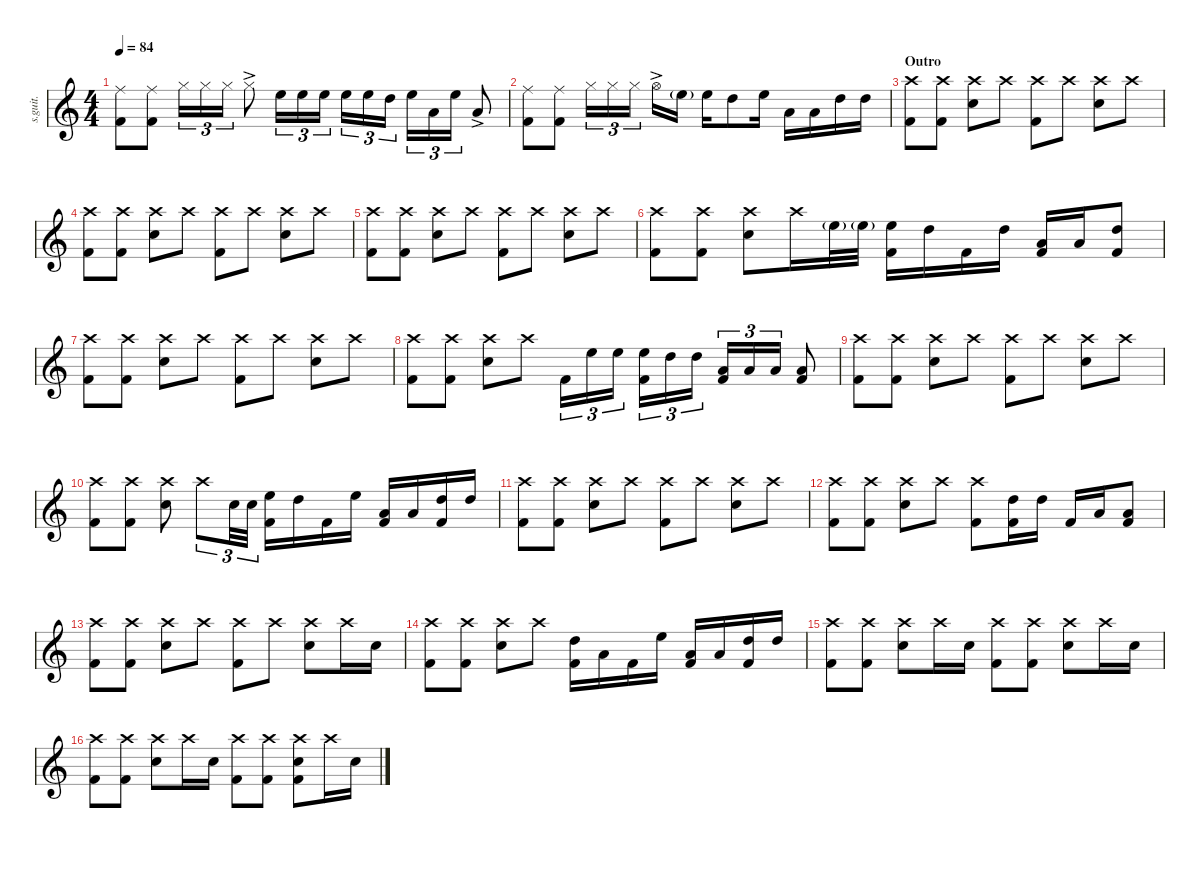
\defaultSystemsLayout 4
\hideDynamics
\bracketExtendMode nobrackets
\track ("Ringo Starr - Drums" "s.guit.") {instrument percussion}
\staff {score}
\articulation defaults
\ts (4 4)
\tempo 84
\clef g2
\ks c
("Ride (middle)" "Kick (hit) 2").8{lyrics (0 "") lyrics (1 "") lyrics (2 "") lyrics (3 "") lyrics (4 "") dy f} ("Ride (middle)" "Kick (hit) 2").8{lyrics (0 "") lyrics (1 "") lyrics (2 "") lyrics (3 "") lyrics (4 "")} "Hi-Hat (closed)".16{tu (3 2) lyrics (0 "") lyrics (1 "") lyrics (2 "") lyrics (3 "") lyrics (4 "")} "Hi-Hat (closed)".16{tu (3 2) lyrics (0 "") lyrics (1 "") lyrics (2 "") lyrics (3 "") lyrics (4 "")} "Hi-Hat (closed)".16{tu (3 2) lyrics (0 "") lyrics (1 "") lyrics (2 "") lyrics (3 "") lyrics (4 "")} "Hi-Hat (closed)"{ac}.8{lyrics (0 "") lyrics (1 "") lyrics (2 "") lyrics (3 "") lyrics (4 "")} "High Floor Tom (hit)".16{tu (3 2) lyrics (0 "") lyrics (1 "") lyrics (2 "") lyrics (3 "") lyrics (4 "")} "High Floor Tom (hit)".16{tu (3 2) lyrics (0 "") lyrics (1 "") lyrics (2 "") lyrics (3 "") lyrics (4 "")} "High Floor Tom (hit)".16{tu (3 2) lyrics (0 "") lyrics (1 "") lyrics (2 "") lyrics (3 "") lyrics (4 "")} "High Floor Tom (hit)".16{tu (3 2) lyrics (0 "") lyrics (1 "") lyrics (2 "") lyrics (3 "") lyrics (4 "")} "High Floor Tom (hit)".16{tu (3 2) lyrics (0 "") lyrics (1 "") lyrics (2 "") lyrics (3 "") lyrics (4 "")} "High Tom (hit)".16{tu (3 2) lyrics (0 "") lyrics (1 "") lyrics (2 "") lyrics (3 "") lyrics (4 "")} "High Floor Tom (hit)".16{tu (3 2) lyrics (0 "") lyrics (1 "") lyrics (2 "") lyrics (3 "") lyrics (4 "")} "Low Tom (hit)".16{tu (3 2) lyrics (0 "") lyrics (1 "") lyrics (2 "") lyrics (3 "") lyrics (4 "")} "High Floor Tom (hit)".16{tu (3 2) lyrics (0 "") lyrics (1 "") lyrics (2 "") lyrics (3 "") lyrics (4 "")} "Low Tom (hit)"{ac}.8{lyrics (0 "") lyrics (1 "") lyrics (2 "") lyrics (3 "") lyrics (4 "")} |
("Ride (middle)" "Kick (hit) 2").8{lyrics (0 "") lyrics (1 "") lyrics (2 "") lyrics (3 "") lyrics (4 "")} ("Ride (middle)" "Kick (hit) 2").8{lyrics (0 "") lyrics (1 "") lyrics (2 "") lyrics (3 "") lyrics (4 "")} "Hi-Hat (closed)".16{tu (3 2) lyrics (0 "") lyrics (1 "") lyrics (2 "") lyrics (3 "") lyrics (4 "")} "Hi-Hat (closed)".16{tu (3 2) lyrics (0 "") lyrics (1 "") lyrics (2 "") lyrics (3 "") lyrics (4 "")} "Hi-Hat (closed)".16{tu (3 2) lyrics (0 "") lyrics (1 "") lyrics (2 "") lyrics (3 "") lyrics (4 "")} "Hi-Hat (open)"{ac}.16{lyrics (0 "") lyrics (1 "") lyrics (2 "") lyrics (3 "") lyrics (4 "")} "High Floor Tom (hit)"{g}.16{lyrics (0 "") lyrics (1 "") lyrics (2 "") lyrics (3 "") lyrics (4 "") dy p} "High Floor Tom (hit)".16{lyrics (0 "") lyrics (1 "") lyrics (2 "") lyrics (3 "") lyrics (4 "") dy mp} "High Tom (hit)".8{lyrics (0 "") lyrics (1 "") lyrics (2 "") lyrics (3 "") lyrics (4 "") dy f} "High Floor Tom (hit)".16{lyrics (0 "") lyrics (1 "") lyrics (2 "") lyrics (3 "") lyrics (4 "") dy mp} "Low Tom (hit)".16{lyrics (0 "") lyrics (1 "") lyrics (2 "") lyrics (3 "") lyrics (4 "") dy f} "Low Tom (hit)".16{lyrics (0 "") lyrics (1 "") lyrics (2 "") lyrics (3 "") lyrics (4 "")} "High Tom (hit)".16{lyrics (0 "") lyrics (1 "") lyrics (2 "") lyrics (3 "") lyrics (4 "")} "High Tom (hit)".16{lyrics (0 "") lyrics (1 "") lyrics (2 "") lyrics (3 "") lyrics (4 "")} |
\section ("" "Outro")
("Crash high (hit)" "Kick (hit) 2").8{lyrics (0 "") lyrics (1 "") lyrics (2 "") lyrics (3 "") lyrics (4 "")} ("Kick (hit) 2" "Crash high (hit)").8{lyrics (0 "") lyrics (1 "") lyrics (2 "") lyrics (3 "") lyrics (4 "")} ("Crash high (hit)" "Snare (hit) 2").8{lyrics (0 "") lyrics (1 "") lyrics (2 "") lyrics (3 "") lyrics (4 "")} "Crash high (hit)".8{lyrics (0 "") lyrics (1 "") lyrics (2 "") lyrics (3 "") lyrics (4 "") dy mf} ("Crash high (hit)" "Kick (hit) 2").8{lyrics (0 "") lyrics (1 "") lyrics (2 "") lyrics (3 "") lyrics (4 "") dy f} "Crash high (hit)".8{lyrics (0 "") lyrics (1 "") lyrics (2 "") lyrics (3 "") lyrics (4 "") dy mf} ("Crash high (hit)" "Snare (hit) 2").8{lyrics (0 "") lyrics (1 "") lyrics (2 "") lyrics (3 "") lyrics (4 "") dy f} "Crash high (hit)".8{lyrics (0 "") lyrics (1 "") lyrics (2 "") lyrics (3 "") lyrics (4 "") dy mf} |
("Crash high (hit)" "Kick (hit) 2").8{lyrics (0 "") lyrics (1 "") lyrics (2 "") lyrics (3 "") lyrics (4 "") dy f} ("Kick (hit) 2" "Crash high (hit)").8{lyrics (0 "") lyrics (1 "") lyrics (2 "") lyrics (3 "") lyrics (4 "")} ("Crash high (hit)" "Snare (hit) 2").8{lyrics (0 "") lyrics (1 "") lyrics (2 "") lyrics (3 "") lyrics (4 "")} "Crash high (hit)".8{lyrics (0 "") lyrics (1 "") lyrics (2 "") lyrics (3 "") lyrics (4 "") dy mf} ("Crash high (hit)" "Kick (hit) 2").8{lyrics (0 "") lyrics (1 "") lyrics (2 "") lyrics (3 "") lyrics (4 "") dy f} "Crash high (hit)".8{lyrics (0 "") lyrics (1 "") lyrics (2 "") lyrics (3 "") lyrics (4 "") dy mf} ("Crash high (hit)" "Snare (hit) 2").8{lyrics (0 "") lyrics (1 "") lyrics (2 "") lyrics (3 "") lyrics (4 "") dy f} "Crash high (hit)".8{lyrics (0 "") lyrics (1 "") lyrics (2 "") lyrics (3 "") lyrics (4 "") dy mf} |
("Crash high (hit)" "Kick (hit) 2").8{lyrics (0 "") lyrics (1 "") lyrics (2 "") lyrics (3 "") lyrics (4 "") dy f} ("Kick (hit) 2" "Crash high (hit)").8{lyrics (0 "") lyrics (1 "") lyrics (2 "") lyrics (3 "") lyrics (4 "")} ("Crash high (hit)" "Snare (hit) 2").8{lyrics (0 "") lyrics (1 "") lyrics (2 "") lyrics (3 "") lyrics (4 "")} "Crash high (hit)".8{lyrics (0 "") lyrics (1 "") lyrics (2 "") lyrics (3 "") lyrics (4 "") dy mf} ("Crash high (hit)" "Kick (hit) 2").8{lyrics (0 "") lyrics (1 "") lyrics (2 "") lyrics (3 "") lyrics (4 "") dy f} "Crash high (hit)".8{lyrics (0 "") lyrics (1 "") lyrics (2 "") lyrics (3 "") lyrics (4 "") dy mf} ("Crash high (hit)" "Snare (hit) 2").8{lyrics (0 "") lyrics (1 "") lyrics (2 "") lyrics (3 "") lyrics (4 "") dy f} "Crash high (hit)".8{lyrics (0 "") lyrics (1 "") lyrics (2 "") lyrics (3 "") lyrics (4 "") dy mf} |
("Crash high (hit)" "Kick (hit) 2").8{lyrics (0 "") lyrics (1 "") lyrics (2 "") lyrics (3 "") lyrics (4 "") dy f} ("Kick (hit) 2" "Crash high (hit)").8{lyrics (0 "") lyrics (1 "") lyrics (2 "") lyrics (3 "") lyrics (4 "")} ("Crash high (hit)" "Snare (hit) 2").8{lyrics (0 "") lyrics (1 "") lyrics (2 "") lyrics (3 "") lyrics (4 "")} "Crash high (hit)".16{lyrics (0 "") lyrics (1 "") lyrics (2 "") lyrics (3 "") lyrics (4 "") dy mf} "High Floor Tom (hit)"{g}.32{lyrics (0 "") lyrics (1 "") lyrics (2 "") lyrics (3 "") lyrics (4 "") dy p} "High Floor Tom (hit)"{g}.32{lyrics (0 "") lyrics (1 "") lyrics (2 "") lyrics (3 "") lyrics (4 "")} ("Kick (hit) 2" "High Floor Tom (hit)").16{lyrics (0 "") lyrics (1 "") lyrics (2 "") lyrics (3 "") lyrics (4 "") dy f} "High Tom (hit)".16{lyrics (0 "") lyrics (1 "") lyrics (2 "") lyrics (3 "") lyrics (4 "")} "Kick (hit) 2".16{lyrics (0 "") lyrics (1 "") lyrics (2 "") lyrics (3 "") lyrics (4 "")} "High Tom (hit)".16{lyrics (0 "") lyrics (1 "") lyrics (2 "") lyrics (3 "") lyrics (4 "")} ("Kick (hit) 2" "Low Tom (hit)").16{lyrics (0 "") lyrics (1 "") lyrics (2 "") lyrics (3 "") lyrics (4 "")} "Low Tom (hit)".16{lyrics (0 "") lyrics (1 "") lyrics (2 "") lyrics (3 "") lyrics (4 "")} ("Kick (hit) 2" "High Tom (hit)").8{lyrics (0 "") lyrics (1 "") lyrics (2 "") lyrics (3 "") lyrics (4 "")} |
("Crash high (hit)" "Kick (hit) 2").8{lyrics (0 "") lyrics (1 "") lyrics (2 "") lyrics (3 "") lyrics (4 "")} ("Kick (hit) 2" "Crash high (hit)").8{lyrics (0 "") lyrics (1 "") lyrics (2 "") lyrics (3 "") lyrics (4 "")} ("Crash high (hit)" "Snare (hit) 2").8{lyrics (0 "") lyrics (1 "") lyrics (2 "") lyrics (3 "") lyrics (4 "")} "Crash high (hit)".8{lyrics (0 "") lyrics (1 "") lyrics (2 "") lyrics (3 "") lyrics (4 "") dy mf} ("Crash high (hit)" "Kick (hit) 2").8{lyrics (0 "") lyrics (1 "") lyrics (2 "") lyrics (3 "") lyrics (4 "") dy f} "Crash high (hit)".8{lyrics (0 "") lyrics (1 "") lyrics (2 "") lyrics (3 "") lyrics (4 "") dy mf} ("Crash high (hit)" "Snare (hit) 2").8{lyrics (0 "") lyrics (1 "") lyrics (2 "") lyrics (3 "") lyrics (4 "") dy f} "Crash high (hit)".8{lyrics (0 "") lyrics (1 "") lyrics (2 "") lyrics (3 "") lyrics (4 "") dy mf} |
("Crash high (hit)" "Kick (hit) 2").8{lyrics (0 "") lyrics (1 "") lyrics (2 "") lyrics (3 "") lyrics (4 "") dy f} ("Kick (hit) 2" "Crash high (hit)").8{lyrics (0 "") lyrics (1 "") lyrics (2 "") lyrics (3 "") lyrics (4 "")} ("Crash high (hit)" "Snare (hit) 2").8{lyrics (0 "") lyrics (1 "") lyrics (2 "") lyrics (3 "") lyrics (4 "")} "Crash high (hit)".8{lyrics (0 "") lyrics (1 "") lyrics (2 "") lyrics (3 "") lyrics (4 "") dy mf} "Kick (hit) 2".16{tu (3 2) lyrics (0 "") lyrics (1 "") lyrics (2 "") lyrics (3 "") lyrics (4 "") dy f} "High Floor Tom (hit)".16{tu (3 2) lyrics (0 "") lyrics (1 "") lyrics (2 "") lyrics (3 "") lyrics (4 "")} "High Floor Tom (hit)".16{tu (3 2) lyrics (0 "") lyrics (1 "") lyrics (2 "") lyrics (3 "") lyrics (4 "")} ("High Floor Tom (hit)" "Kick (hit) 2").16{tu (3 2) lyrics (0 "") lyrics (1 "") lyrics (2 "") lyrics (3 "") lyrics (4 "")} "High Tom (hit)".16{tu (3 2) lyrics (0 "") lyrics (1 "") lyrics (2 "") lyrics (3 "") lyrics (4 "")} "High Tom (hit)".16{tu (3 2) lyrics (0 "") lyrics (1 "") lyrics (2 "") lyrics (3 "") lyrics (4 "")} ("Low Tom (hit)" "Kick (hit) 2").16{tu (3 2) lyrics (0 "") lyrics (1 "") lyrics (2 "") lyrics (3 "") lyrics (4 "")} "Low Tom (hit)".16{tu (3 2) lyrics (0 "") lyrics (1 "") lyrics (2 "") lyrics (3 "") lyrics (4 "")} "Low Tom (hit)".16{tu (3 2) lyrics (0 "") lyrics (1 "") lyrics (2 "") lyrics (3 "") lyrics (4 "")} ("Low Tom (hit)" "Kick (hit) 2").8{lyrics (0 "") lyrics (1 "") lyrics (2 "") lyrics (3 "") lyrics (4 "")} |
("Crash high (hit)" "Kick (hit) 2").8{lyrics (0 "") lyrics (1 "") lyrics (2 "") lyrics (3 "") lyrics (4 "")} ("Kick (hit) 2" "Crash high (hit)").8{lyrics (0 "") lyrics (1 "") lyrics (2 "") lyrics (3 "") lyrics (4 "")} ("Crash high (hit)" "Snare (hit) 2").8{lyrics (0 "") lyrics (1 "") lyrics (2 "") lyrics (3 "") lyrics (4 "")} "Crash high (hit)".8{lyrics (0 "") lyrics (1 "") lyrics (2 "") lyrics (3 "") lyrics (4 "") dy mf} ("Crash high (hit)" "Kick (hit) 2").8{lyrics (0 "") lyrics (1 "") lyrics (2 "") lyrics (3 "") lyrics (4 "") dy f} "Crash high (hit)".8{lyrics (0 "") lyrics (1 "") lyrics (2 "") lyrics (3 "") lyrics (4 "") dy mf} ("Crash high (hit)" "Snare (hit) 2").8{lyrics (0 "") lyrics (1 "") lyrics (2 "") lyrics (3 "") lyrics (4 "") dy f} "Crash high (hit)".8{lyrics (0 "") lyrics (1 "") lyrics (2 "") lyrics (3 "") lyrics (4 "") dy mf} |
("Crash high (hit)" "Kick (hit) 2").8{lyrics (0 "") lyrics (1 "") lyrics (2 "") lyrics (3 "") lyrics (4 "") dy f} ("Kick (hit) 2" "Crash high (hit)").8{lyrics (0 "") lyrics (1 "") lyrics (2 "") lyrics (3 "") lyrics (4 "")} ("Crash high (hit)" "Snare (hit) 2").8{lyrics (0 "") lyrics (1 "") lyrics (2 "") lyrics (3 "") lyrics (4 "")} "Crash high (hit)".8{tu (3 2) lyrics (0 "") lyrics (1 "") lyrics (2 "") lyrics (3 "") lyrics (4 "") dy mf} "Snare (hit) 2".32{tu (3 2) lyrics (0 "") lyrics (1 "") lyrics (2 "") lyrics (3 "") lyrics (4 "") dy f} "Snare (hit) 2".32{tu (3 2) lyrics (0 "") lyrics (1 "") lyrics (2 "") lyrics (3 "") lyrics (4 "")} ("Kick (hit) 2" "High Floor Tom (hit)").16{lyrics (0 "") lyrics (1 "") lyrics (2 "") lyrics (3 "") lyrics (4 "")} "High Tom (hit)".16{lyrics (0 "") lyrics (1 "") lyrics (2 "") lyrics (3 "") lyrics (4 "")} "Kick (hit) 2".16{lyrics (0 "") lyrics (1 "") lyrics (2 "") lyrics (3 "") lyrics (4 "")} "High Floor Tom (hit)".16{lyrics (0 "") lyrics (1 "") lyrics (2 "") lyrics (3 "") lyrics (4 "")} ("Kick (hit) 2" "Low Tom (hit)").16{lyrics (0 "") lyrics (1 "") lyrics (2 "") lyrics (3 "") lyrics (4 "")} "Low Tom (hit)".16{lyrics (0 "") lyrics (1 "") lyrics (2 "") lyrics (3 "") lyrics (4 "")} ("Kick (hit) 2" "High Tom (hit)").16{lyrics (0 "") lyrics (1 "") lyrics (2 "") lyrics (3 "") lyrics (4 "")} "High Tom (hit)".16{lyrics (0 "") lyrics (1 "") lyrics (2 "") lyrics (3 "") lyrics (4 "")} |
("Crash high (hit)" "Kick (hit) 2").8{lyrics (0 "") lyrics (1 "") lyrics (2 "") lyrics (3 "") lyrics (4 "")} ("Kick (hit) 2" "Crash high (hit)").8{lyrics (0 "") lyrics (1 "") lyrics (2 "") lyrics (3 "") lyrics (4 "")} ("Crash high (hit)" "Snare (hit) 2").8{lyrics (0 "") lyrics (1 "") lyrics (2 "") lyrics (3 "") lyrics (4 "")} "Crash high (hit)".8{lyrics (0 "") lyrics (1 "") lyrics (2 "") lyrics (3 "") lyrics (4 "") dy mf} ("Crash high (hit)" "Kick (hit) 2").8{lyrics (0 "") lyrics (1 "") lyrics (2 "") lyrics (3 "") lyrics (4 "") dy f} "Crash high (hit)".8{lyrics (0 "") lyrics (1 "") lyrics (2 "") lyrics (3 "") lyrics (4 "") dy mf} ("Crash high (hit)" "Snare (hit) 2").8{lyrics (0 "") lyrics (1 "") lyrics (2 "") lyrics (3 "") lyrics (4 "") dy f} "Crash high (hit)".8{lyrics (0 "") lyrics (1 "") lyrics (2 "") lyrics (3 "") lyrics (4 "") dy mf} |
("Crash high (hit)" "Kick (hit) 2").8{lyrics (0 "") lyrics (1 "") lyrics (2 "") lyrics (3 "") lyrics (4 "") dy f} ("Kick (hit) 2" "Crash high (hit)").8{lyrics (0 "") lyrics (1 "") lyrics (2 "") lyrics (3 "") lyrics (4 "")} ("Crash high (hit)" "Snare (hit) 2").8{lyrics (0 "") lyrics (1 "") lyrics (2 "") lyrics (3 "") lyrics (4 "")} "Crash high (hit)".8{lyrics (0 "") lyrics (1 "") lyrics (2 "") lyrics (3 "") lyrics (4 "") dy mf} ("Crash high (hit)" "Kick (hit) 2").8{lyrics (0 "") lyrics (1 "") lyrics (2 "") lyrics (3 "") lyrics (4 "") dy f} ("Kick (hit) 2" "High Tom (hit)").16{lyrics (0 "") lyrics (1 "") lyrics (2 "") lyrics (3 "") lyrics (4 "")} "High Tom (hit)".16{lyrics (0 "") lyrics (1 "") lyrics (2 "") lyrics (3 "") lyrics (4 "")} "Kick (hit) 2".16{lyrics (0 "") lyrics (1 "") lyrics (2 "") lyrics (3 "") lyrics (4 "")} "Low Tom (hit)".16{lyrics (0 "") lyrics (1 "") lyrics (2 "") lyrics (3 "") lyrics (4 "")} ("Kick (hit) 2" "Low Tom (hit)").8{lyrics (0 "") lyrics (1 "") lyrics (2 "") lyrics (3 "") lyrics (4 "")} |
("Crash high (hit)" "Kick (hit) 2").8{lyrics (0 "") lyrics (1 "") lyrics (2 "") lyrics (3 "") lyrics (4 "")} ("Kick (hit) 2" "Crash high (hit)").8{lyrics (0 "") lyrics (1 "") lyrics (2 "") lyrics (3 "") lyrics (4 "")} ("Crash high (hit)" "Snare (hit) 2").8{lyrics (0 "") lyrics (1 "") lyrics (2 "") lyrics (3 "") lyrics (4 "")} "Crash high (hit)".8{lyrics (0 "") lyrics (1 "") lyrics (2 "") lyrics (3 "") lyrics (4 "") dy mf} ("Crash high (hit)" "Kick (hit) 2").8{lyrics (0 "") lyrics (1 "") lyrics (2 "") lyrics (3 "") lyrics (4 "") dy f} "Crash high (hit)".8{lyrics (0 "") lyrics (1 "") lyrics (2 "") lyrics (3 "") lyrics (4 "") dy mf} ("Crash high (hit)" "Snare (hit) 2").8{lyrics (0 "") lyrics (1 "") lyrics (2 "") lyrics (3 "") lyrics (4 "") dy f} "Crash high (hit)".16{lyrics (0 "") lyrics (1 "") lyrics (2 "") lyrics (3 "") lyrics (4 "") dy mf} "Snare (hit) 2".16{lyrics (0 "") lyrics (1 "") lyrics (2 "") lyrics (3 "") lyrics (4 "")} |
("Crash high (hit)" "Kick (hit) 2").8{lyrics (0 "") lyrics (1 "") lyrics (2 "") lyrics (3 "") lyrics (4 "") dy f} ("Kick (hit) 2" "Crash high (hit)").8{lyrics (0 "") lyrics (1 "") lyrics (2 "") lyrics (3 "") lyrics (4 "")} ("Crash high (hit)" "Snare (hit) 2").8{lyrics (0 "") lyrics (1 "") lyrics (2 "") lyrics (3 "") lyrics (4 "")} "Crash high (hit)".8{lyrics (0 "") lyrics (1 "") lyrics (2 "") lyrics (3 "") lyrics (4 "") dy mf} ("Kick (hit) 2" "High Tom (hit)").16{lyrics (0 "") lyrics (1 "") lyrics (2 "") lyrics (3 "") lyrics (4 "") dy f} "Low Tom (hit)".16{lyrics (0 "") lyrics (1 "") lyrics (2 "") lyrics (3 "") lyrics (4 "")} "Kick (hit) 2".16{lyrics (0 "") lyrics (1 "") lyrics (2 "") lyrics (3 "") lyrics (4 "")} "High Floor Tom (hit)".16{lyrics (0 "") lyrics (1 "") lyrics (2 "") lyrics (3 "") lyrics (4 "")} ("Kick (hit) 2" "Low Tom (hit)").16{lyrics (0 "") lyrics (1 "") lyrics (2 "") lyrics (3 "") lyrics (4 "")} "Low Tom (hit)".16{lyrics (0 "") lyrics (1 "") lyrics (2 "") lyrics (3 "") lyrics (4 "")} ("Kick (hit) 2" "High Tom (hit)").16{lyrics (0 "") lyrics (1 "") lyrics (2 "") lyrics (3 "") lyrics (4 "")} "High Tom (hit)".16{lyrics (0 "") lyrics (1 "") lyrics (2 "") lyrics (3 "") lyrics (4 "")} |
("Crash high (hit)" "Kick (hit) 2").8{lyrics (0 "") lyrics (1 "") lyrics (2 "") lyrics (3 "") lyrics (4 "")} ("Kick (hit) 2" "Crash high (hit)").8{lyrics (0 "") lyrics (1 "") lyrics (2 "") lyrics (3 "") lyrics (4 "")} ("Crash high (hit)" "Snare (hit) 2").8{lyrics (0 "") lyrics (1 "") lyrics (2 "") lyrics (3 "") lyrics (4 "")} "Crash high (hit)".16{lyrics (0 "") lyrics (1 "") lyrics (2 "") lyrics (3 "") lyrics (4 "") dy mf} "Snare (hit) 2".16{lyrics (0 "") lyrics (1 "") lyrics (2 "") lyrics (3 "") lyrics (4 "")} ("Crash high (hit)" "Kick (hit) 2").8{lyrics (0 "") lyrics (1 "") lyrics (2 "") lyrics (3 "") lyrics (4 "") dy f} ("Kick (hit) 2" "Crash high (hit)").8{lyrics (0 "") lyrics (1 "") lyrics (2 "") lyrics (3 "") lyrics (4 "")} ("Crash high (hit)" "Snare (hit) 2").8{lyrics (0 "") lyrics (1 "") lyrics (2 "") lyrics (3 "") lyrics (4 "")} "Crash high (hit)".16{lyrics (0 "") lyrics (1 "") lyrics (2 "") lyrics (3 "") lyrics (4 "") dy mf} "Snare (hit) 2".16{lyrics (0 "") lyrics (1 "") lyrics (2 "") lyrics (3 "") lyrics (4 "")} |
("Crash high (hit)" "Kick (hit) 2").8{lyrics (0 "") lyrics (1 "") lyrics (2 "") lyrics (3 "") lyrics (4 "") dy f} ("Kick (hit) 2" "Crash high (hit)").8{lyrics (0 "") lyrics (1 "") lyrics (2 "") lyrics (3 "") lyrics (4 "")} ("Crash high (hit)" "Snare (hit) 2").8{lyrics (0 "") lyrics (1 "") lyrics (2 "") lyrics (3 "") lyrics (4 "")} "Crash high (hit)".16{lyrics (0 "") lyrics (1 "") lyrics (2 "") lyrics (3 "") lyrics (4 "") dy mf} "Snare (hit) 2".16{lyrics (0 "") lyrics (1 "") lyrics (2 "") lyrics (3 "") lyrics (4 "")} ("Crash high (hit)" "Kick (hit) 2").8{lyrics (0 "") lyrics (1 "") lyrics (2 "") lyrics (3 "") lyrics (4 "") dy f} ("Kick (hit) 2" "Crash high (hit)").8{lyrics (0 "") lyrics (1 "") lyrics (2 "") lyrics (3 "") lyrics (4 "")} ("Crash high (hit)" "Snare (hit) 2" "Kick (hit) 2").8{lyrics (0 "") lyrics (1 "") lyrics (2 "") lyrics (3 "") lyrics (4 "")} "Crash high (hit)".16{lyrics (0 "") lyrics (1 "") lyrics (2 "") lyrics (3 "") lyrics (4 "") dy mf} "Snare (hit) 2".16{lyrics (0 "") lyrics (1 "") lyrics (2 "") lyrics (3 "") lyrics (4 "")}
